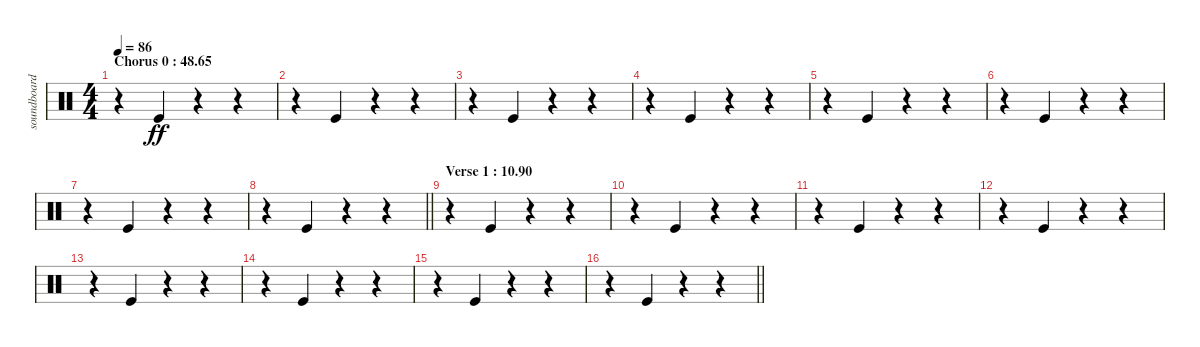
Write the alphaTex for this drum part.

\track ("soundboard" "soundboard") {instrument percussion}
\staff {score}
\articulation defaults
\ts (4 4)
\section ("" "Chorus 0 : 48.65")
\tempo 86
\clef neutral
\ks aminor
r.4{dy ff} "Kick (hit)".4 r.4 r.4 |
r.4 "Kick (hit)".4 r.4 r.4 |
r.4 "Kick (hit)".4 r.4 r.4 |
r.4 "Kick (hit)".4 r.4 r.4 |
r.4 "Kick (hit)".4 r.4 r.4 |
r.4 "Kick (hit)".4 r.4 r.4 |
r.4 "Kick (hit)".4 r.4 r.4 |
\barLineRight lightlight
r.4 "Kick (hit)".4 r.4 r.4 |
\section ("" "Verse 1 : 10.90")
\ks c
r.4 "Kick (hit)".4 r.4 r.4 |
r.4 "Kick (hit)".4 r.4 r.4 |
r.4 "Kick (hit)".4 r.4 r.4 |
r.4 "Kick (hit)".4 r.4 r.4 |
r.4 "Kick (hit)".4 r.4 r.4 |
r.4 "Kick (hit)".4 r.4 r.4 |
r.4 "Kick (hit)".4 r.4 r.4 |
\barLineRight lightlight
r.4 "Kick (hit)".4 r.4 r.4
